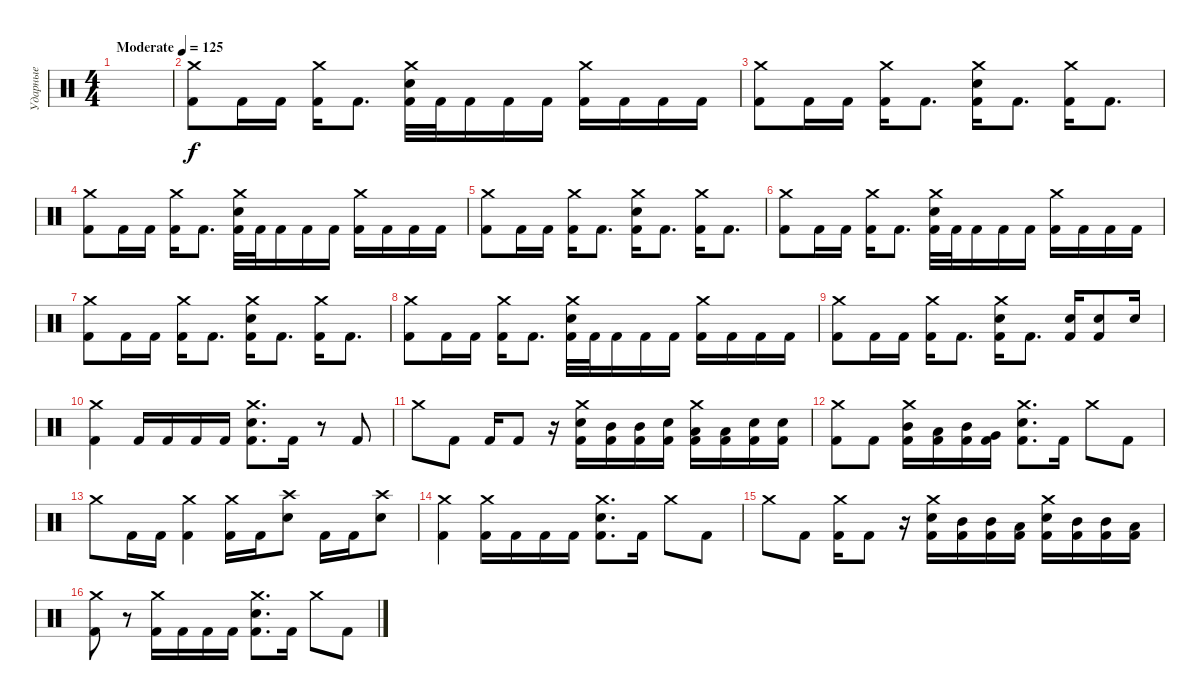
\track ("Ударные" "Ударные") {instrument percussion}
\staff {score}
\articulation defaults
\ts (4 4)
\tempo (125 "Moderate")
\clef neutral
\ks c
|
("Crash medium (hit)" "Kick (hit) 2").8 "Kick (hit) 2".16 "Kick (hit) 2".16 ("Crash medium (hit)" "Kick (hit) 2").16 "Kick (hit) 2".8{d} ("Crash medium (hit)" "Electric Snare (hit)" "Kick (hit) 2").32 "Kick (hit) 2".32 "Kick (hit) 2".16 "Kick (hit) 2".16 "Kick (hit) 2".16 ("Crash medium (hit)" "Kick (hit) 2").16 "Kick (hit) 2".16 "Kick (hit) 2".16 "Kick (hit) 2".16 |
("Crash medium (hit)" "Kick (hit) 2").8 "Kick (hit) 2".16 "Kick (hit) 2".16 ("Crash medium (hit)" "Kick (hit) 2").16 "Kick (hit) 2".8{d} ("Crash medium (hit)" "Electric Snare (hit)" "Kick (hit) 2").16 "Kick (hit) 2".8{d} ("Crash medium (hit)" "Kick (hit) 2").16 "Kick (hit) 2".8{d} |
("Crash medium (hit)" "Kick (hit) 2").8 "Kick (hit) 2".16 "Kick (hit) 2".16 ("Crash medium (hit)" "Kick (hit) 2").16 "Kick (hit) 2".8{d} ("Crash medium (hit)" "Electric Snare (hit)" "Kick (hit) 2").32 "Kick (hit) 2".32 "Kick (hit) 2".16 "Kick (hit) 2".16 "Kick (hit) 2".16 ("Crash medium (hit)" "Kick (hit) 2").16 "Kick (hit) 2".16 "Kick (hit) 2".16 "Kick (hit) 2".16 |
("Crash medium (hit)" "Kick (hit) 2").8 "Kick (hit) 2".16 "Kick (hit) 2".16 ("Crash medium (hit)" "Kick (hit) 2").16 "Kick (hit) 2".8{d} ("Crash medium (hit)" "Electric Snare (hit)" "Kick (hit) 2").16 "Kick (hit) 2".8{d} ("Crash medium (hit)" "Kick (hit) 2").16 "Kick (hit) 2".8{d} |
("Crash medium (hit)" "Kick (hit) 2").8 "Kick (hit) 2".16 "Kick (hit) 2".16 ("Crash medium (hit)" "Kick (hit) 2").16 "Kick (hit) 2".8{d} ("Crash medium (hit)" "Electric Snare (hit)" "Kick (hit) 2").32 "Kick (hit) 2".32 "Kick (hit) 2".16 "Kick (hit) 2".16 "Kick (hit) 2".16 ("Crash medium (hit)" "Kick (hit) 2").16 "Kick (hit) 2".16 "Kick (hit) 2".16 "Kick (hit) 2".16 |
("Crash medium (hit)" "Kick (hit) 2").8 "Kick (hit) 2".16 "Kick (hit) 2".16 ("Crash medium (hit)" "Kick (hit) 2").16 "Kick (hit) 2".8{d} ("Crash medium (hit)" "Electric Snare (hit)" "Kick (hit) 2").16 "Kick (hit) 2".8{d} ("Crash medium (hit)" "Kick (hit) 2").16 "Kick (hit) 2".8{d} |
("Crash medium (hit)" "Kick (hit) 2").8 "Kick (hit) 2".16 "Kick (hit) 2".16 ("Crash medium (hit)" "Kick (hit) 2").16 "Kick (hit) 2".8{d} ("Crash medium (hit)" "Electric Snare (hit)" "Kick (hit) 2").32 "Kick (hit) 2".32 "Kick (hit) 2".16 "Kick (hit) 2".16 "Kick (hit) 2".16 ("Crash medium (hit)" "Kick (hit) 2").16 "Kick (hit) 2".16 "Kick (hit) 2".16 "Kick (hit) 2".16 |
("Crash medium (hit)" "Kick (hit) 2").8 "Kick (hit) 2".16 "Kick (hit) 2".16 ("Crash medium (hit)" "Kick (hit) 2").16 "Kick (hit) 2".8{d} ("Crash medium (hit)" "Electric Snare (hit)" "Kick (hit) 2").16 "Kick (hit) 2".8{d} ("Electric Snare (hit)" "Kick (hit) 2").16 ("Electric Snare (hit)" "Kick (hit) 2").8 "Electric Snare (hit)".16 |
("Crash medium (hit)" "Kick (hit) 2").4 "Kick (hit) 2".16 "Kick (hit) 2".16 "Kick (hit) 2".16 "Kick (hit) 2".16 ("Crash medium (hit)" "Electric Snare (hit)" "Kick (hit) 2").8{d} "Kick (hit) 2".16 r.8 "Kick (hit) 2".8 |
"Crash medium (hit)".8 "Kick (hit) 2".8 "Kick (hit) 2".16 "Kick (hit) 2".8 r.16 ("Crash medium (hit)" "Electric Snare (hit)" "Kick (hit) 2").16 ("Mid Tom (hit)" "Kick (hit) 2").16 ("Mid Tom (hit)" "Kick (hit) 2").16 ("Electric Snare (hit)" "Kick (hit) 2").16 ("Crash medium (hit)" "Low Tom (hit)" "Kick (hit) 2").16 ("Low Tom (hit)" "Kick (hit) 2").16 ("Electric Snare (hit)" "Kick (hit) 2").16 ("Electric Snare (hit)" "Kick (hit) 2").16 |
("Crash medium (hit)" "Kick (hit) 2").8 "Kick (hit) 2".8 ("Crash medium (hit)" "Mid Tom (hit)" "Kick (hit) 2").16 ("Low Tom (hit)" "Kick (hit) 2").16 ("Mid Tom (hit)" "Kick (hit) 2").16 ("Very Low Tom (hit)" "Kick (hit) 2").16 ("Crash medium (hit)" "Electric Snare (hit)" "Kick (hit) 2").8{d} "Kick (hit) 2".16 "Crash medium (hit)".8 "Kick (hit) 2".8 |
"Crash medium (hit)".8 "Kick (hit) 2".16 "Kick (hit) 2".16 ("Crash medium (hit)" "Kick (hit) 2").4 ("Crash medium (hit)" "Kick (hit) 2").16 "Kick (hit) 2".16 ("Crash high (hit)" "Electric Snare (hit)").8 "Kick (hit) 2".16 "Kick (hit) 2".16 ("Crash high (hit)" "Electric Snare (hit)").8 |
("Crash medium (hit)" "Kick (hit) 2").4 ("Crash medium (hit)" "Kick (hit) 2").16 "Kick (hit) 2".16 "Kick (hit) 2".16 "Kick (hit) 2".16 ("Crash medium (hit)" "Electric Snare (hit)" "Kick (hit) 2").8{d} "Kick (hit) 2".16 "Crash medium (hit)".8 "Kick (hit) 2".8 |
"Crash medium (hit)".8 "Kick (hit) 2".8 ("Crash medium (hit)" "Kick (hit) 2").16 "Kick (hit) 2".8 r.16 ("Crash medium (hit)" "Electric Snare (hit)" "Kick (hit) 2").16 ("Mid Tom (hit)" "Kick (hit) 2").16 ("Mid Tom (hit)" "Kick (hit) 2").16 ("Low Tom (hit)" "Kick (hit) 2").16 ("Crash medium (hit)" "Electric Snare (hit)" "Kick (hit) 2").16 ("Mid Tom (hit)" "Kick (hit) 2").16 ("Mid Tom (hit)" "Kick (hit) 2").16 ("Low Tom (hit)" "Kick (hit) 2").16 |
("Crash medium (hit)" "Kick (hit) 2").8 r.8 ("Crash medium (hit)" "Kick (hit) 2").16 "Kick (hit) 2".16 "Kick (hit) 2".16 "Kick (hit) 2".16 ("Crash medium (hit)" "Electric Snare (hit)" "Kick (hit) 2").8{d} "Kick (hit) 2".16 "Crash medium (hit)".8 "Kick (hit) 2".8
